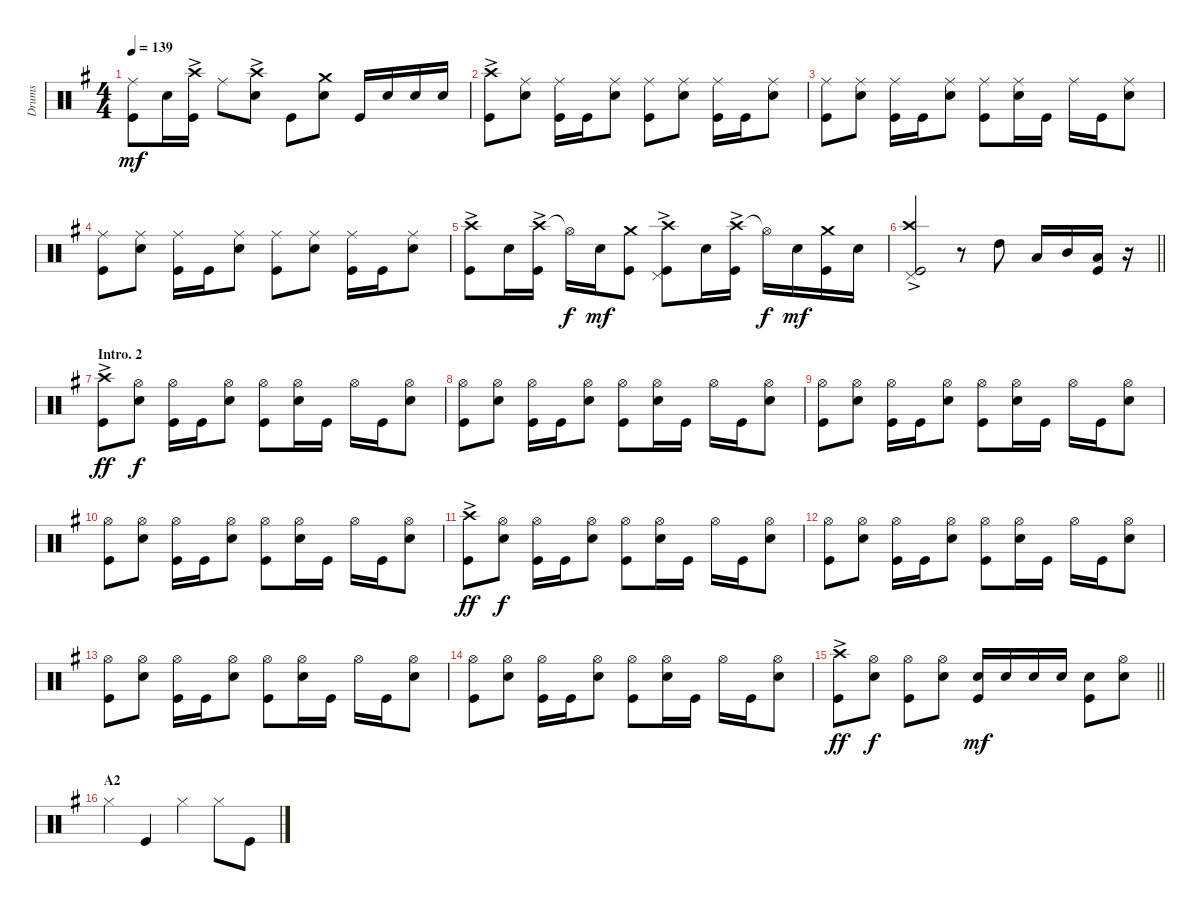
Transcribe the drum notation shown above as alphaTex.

\track ("Drums" "Drums") {instrument percussion}
\staff {score}
\articulation defaults
\ts (4 4)
\tempo 139
\clef neutral
\ks g
("Ride (middle)" "Kick (hit)").8{dy mf} "Snare (hit) 2".16 ("Crash high (hit)"{ac} "Kick (hit)").16 "Ride (middle)".8 ("Crash high (hit)"{ac} "Snare (hit) 2").8 "Kick (hit)".8 ("Crash medium (hit)" "Snare (hit) 2").8 "Kick (hit)".16 "Snare (hit) 2".16 "Snare (hit) 2".16 "Snare (hit) 2".16 |
("Crash high (hit)"{ac} "Kick (hit)").8 ("Ride (middle)" "Snare (hit) 2").8 ("Ride (middle)" "Kick (hit)").16 "Kick (hit)".16 ("Ride (middle)" "Snare (hit) 2").8 ("Ride (middle)" "Kick (hit)").8 ("Ride (middle)" "Snare (hit) 2").8 ("Ride (middle)" "Kick (hit)").16 "Kick (hit)".16 ("Ride (middle)" "Snare (hit) 2").8 |
("Ride (middle)" "Kick (hit)").8 ("Ride (middle)" "Snare (hit) 2").8 ("Ride (middle)" "Kick (hit)").16 "Kick (hit)".16 ("Ride (middle)" "Snare (hit) 2").8 ("Ride (middle)" "Kick (hit)").8 ("Ride (middle)" "Snare (hit) 2").16 "Kick (hit)".16 "Ride (middle)".16 "Kick (hit)".16 ("Ride (middle)" "Snare (hit) 2").8 |
("Ride (middle)" "Kick (hit)").8 ("Ride (middle)" "Snare (hit) 2").8 ("Ride (middle)" "Kick (hit)").16 "Kick (hit)".16 ("Ride (middle)" "Snare (hit) 2").8 ("Ride (middle)" "Kick (hit)").8 ("Ride (middle)" "Snare (hit) 2").8 ("Ride (middle)" "Kick (hit)").16 "Kick (hit)".16 ("Ride (middle)" "Snare (hit) 2").8 |
("Crash high (hit)"{ac} "Kick (hit)").8 "Snare (hit) 2".16 ("Crash high (hit)"{ac} "Kick (hit)").16 "Hi-Hat (open)"{t}.16{dy f} "Snare (hit) 2".16{dy mf} ("Crash medium (hit)" "Kick (hit)").8 ("Crash high (hit)"{ac} "Kick (hit)" "Pedal Hi-Hat (hit)").8 "Snare (hit) 2".16 ("Crash high (hit)"{ac} "Kick (hit)").16 "Hi-Hat (open)"{t}.16{dy f} "Snare (hit) 2".16{dy mf} ("Crash medium (hit)" "Kick (hit)").16 "Snare (hit) 2".16 |
\barLineRight lightlight
("Crash high (hit)"{ac} "Kick (hit)" "Pedal Hi-Hat (hit)").2 r.8 "High Tom (hit)".8 "Low Tom (hit)".16 "Mid Tom (hit)".16 ("Low Tom (hit)" "Kick (hit)").16 r.16 |
\section ("" "Intro. 2")
("Crash high (hit)"{ac} "Kick (hit)").8{dy ff} ("Hi-Hat (open)" "Snare (hit) 2").8{dy f} ("Hi-Hat (open)" "Kick (hit)").16 "Kick (hit)".16 ("Hi-Hat (open)" "Snare (hit) 2").8 ("Hi-Hat (open)" "Kick (hit)").8 ("Hi-Hat (open)" "Snare (hit) 2").16 "Kick (hit)".16 "Hi-Hat (open)".16 "Kick (hit)".16 ("Hi-Hat (open)" "Snare (hit) 2").8 |
("Hi-Hat (open)" "Kick (hit)").8 ("Hi-Hat (open)" "Snare (hit) 2").8 ("Hi-Hat (open)" "Kick (hit)").16 "Kick (hit)".16 ("Hi-Hat (open)" "Snare (hit) 2").8 ("Hi-Hat (open)" "Kick (hit)").8 ("Hi-Hat (open)" "Snare (hit) 2").16 "Kick (hit)".16 "Hi-Hat (open)".16 "Kick (hit)".16 ("Hi-Hat (open)" "Snare (hit) 2").8 |
("Hi-Hat (open)" "Kick (hit)").8 ("Hi-Hat (open)" "Snare (hit) 2").8 ("Hi-Hat (open)" "Kick (hit)").16 "Kick (hit)".16 ("Hi-Hat (open)" "Snare (hit) 2").8 ("Hi-Hat (open)" "Kick (hit)").8 ("Hi-Hat (open)" "Snare (hit) 2").16 "Kick (hit)".16 "Hi-Hat (open)".16 "Kick (hit)".16 ("Hi-Hat (open)" "Snare (hit) 2").8 |
("Hi-Hat (open)" "Kick (hit)").8 ("Hi-Hat (open)" "Snare (hit) 2").8 ("Hi-Hat (open)" "Kick (hit)").16 "Kick (hit)".16 ("Hi-Hat (open)" "Snare (hit) 2").8 ("Hi-Hat (open)" "Kick (hit)").8 ("Hi-Hat (open)" "Snare (hit) 2").16 "Kick (hit)".16 "Hi-Hat (open)".16 "Kick (hit)".16 ("Hi-Hat (open)" "Snare (hit) 2").8 |
("Crash high (hit)"{ac} "Kick (hit)").8{dy ff} ("Hi-Hat (open)" "Snare (hit) 2").8{dy f} ("Hi-Hat (open)" "Kick (hit)").16 "Kick (hit)".16 ("Hi-Hat (open)" "Snare (hit) 2").8 ("Hi-Hat (open)" "Kick (hit)").8 ("Hi-Hat (open)" "Snare (hit) 2").16 "Kick (hit)".16 "Hi-Hat (open)".16 "Kick (hit)".16 ("Hi-Hat (open)" "Snare (hit) 2").8 |
("Hi-Hat (open)" "Kick (hit)").8 ("Hi-Hat (open)" "Snare (hit) 2").8 ("Hi-Hat (open)" "Kick (hit)").16 "Kick (hit)".16 ("Hi-Hat (open)" "Snare (hit) 2").8 ("Hi-Hat (open)" "Kick (hit)").8 ("Hi-Hat (open)" "Snare (hit) 2").16 "Kick (hit)".16 "Hi-Hat (open)".16 "Kick (hit)".16 ("Hi-Hat (open)" "Snare (hit) 2").8 |
("Hi-Hat (open)" "Kick (hit)").8 ("Hi-Hat (open)" "Snare (hit) 2").8 ("Hi-Hat (open)" "Kick (hit)").16 "Kick (hit)".16 ("Hi-Hat (open)" "Snare (hit) 2").8 ("Hi-Hat (open)" "Kick (hit)").8 ("Hi-Hat (open)" "Snare (hit) 2").16 "Kick (hit)".16 "Hi-Hat (open)".16 "Kick (hit)".16 ("Hi-Hat (open)" "Snare (hit) 2").8 |
("Hi-Hat (open)" "Kick (hit)").8 ("Hi-Hat (open)" "Snare (hit) 2").8 ("Hi-Hat (open)" "Kick (hit)").16 "Kick (hit)".16 ("Hi-Hat (open)" "Snare (hit) 2").8 ("Hi-Hat (open)" "Kick (hit)").8 ("Hi-Hat (open)" "Snare (hit) 2").16 "Kick (hit)".16 "Hi-Hat (open)".16 "Kick (hit)".16 ("Hi-Hat (open)" "Snare (hit) 2").8 |
\barLineRight lightlight
("Crash high (hit)"{ac} "Kick (hit)").8{dy ff} ("Hi-Hat (open)" "Snare (hit) 2").8{dy f} ("Hi-Hat (open)" "Kick (hit)").8 ("Hi-Hat (open)" "Snare (hit) 2").8 ("Kick (hit)" "Snare (hit) 2").16{dy mf} "Snare (hit) 2".16 "Snare (hit) 2".16 "Snare (hit) 2".16 ("Snare (hit) 2" "Kick (hit)").8 ("Hi-Hat (open)" "Snare (hit) 2").8 |
\section ("" "A2")
"Hi-Hat (closed)".4 "Kick (hit)".4 "Hi-Hat (closed)".4 "Hi-Hat (closed)".8 "Kick (hit)".8
